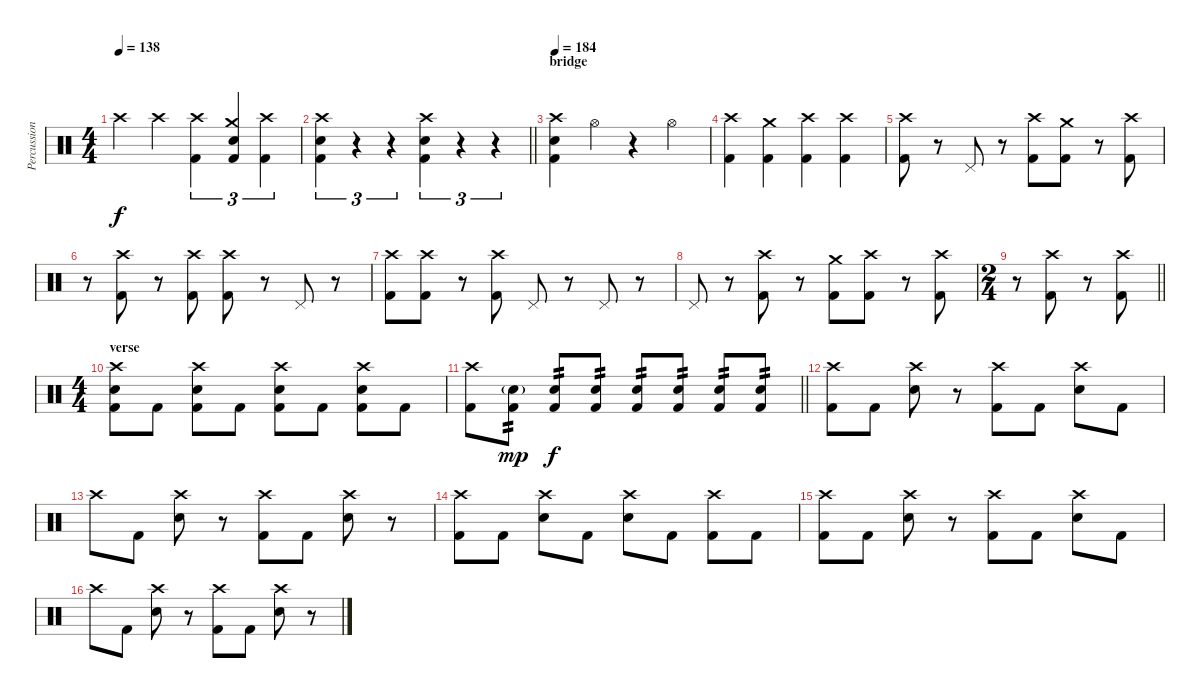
\track ("Percussion" "Percussion") {instrument percussion}
\staff {score}
\articulation defaults
\ts (4 4)
\tempo 138
\clef neutral
\ks c "Crash high (hit)".4{dy f} "Crash high (hit)".4
("Crash high (hit)" "Kick (hit) 2").4{tu (3 2)} ("Crash medium (hit)" "Electric Snare (hit)" "Kick (hit) 2").4{tu (3 2)} ("Crash high (hit)" "Kick (hit) 2").4{tu (3 2)} |
\barLineRight lightlight
("Crash high (hit)" "Electric Snare (hit)" "Kick (hit) 2").4{tu (3 2)} r.4{tu (3 2)} r.4{tu (3 2)} ("Crash high (hit)" "Electric Snare (hit)" "Kick (hit) 2").4{tu (3 2)} r.4{tu (3 2)} r.4{tu (3 2)} |
\section ("" "bridge")
\tempo 184
("Crash high (hit)" "Electric Snare (hit)" "Kick (hit) 2").4 "Hi-Hat (open)".4 r.4 "Hi-Hat (open)".4 |
("Crash high (hit)" "Kick (hit) 2").4 ("Crash medium (hit)" "Kick (hit) 2").4 ("Crash high (hit)" "Kick (hit) 2").4 ("Crash high (hit)" "Kick (hit) 2").4 |
("Crash high (hit)" "Kick (hit) 2").8 r.8 "Pedal Hi-Hat (hit)".8 r.8 ("Crash high (hit)" "Kick (hit) 2").8 ("Crash medium (hit)" "Kick (hit) 2").8 r.8 ("Crash high (hit)" "Kick (hit) 2").8 |
r.8 ("Crash high (hit)" "Kick (hit) 2").8 r.8 ("Crash high (hit)" "Kick (hit) 2").8 ("Crash high (hit)" "Kick (hit) 2").8 r.8 "Pedal Hi-Hat (hit)".8 r.8 |
("Crash high (hit)" "Kick (hit) 2").8 ("Crash high (hit)" "Kick (hit) 2").8 r.8 ("Crash high (hit)" "Kick (hit) 2").8 "Pedal Hi-Hat (hit)".8 r.8 "Pedal Hi-Hat (hit)".8 r.8 |
"Pedal Hi-Hat (hit)".8 r.8 ("Crash high (hit)" "Kick (hit) 2").8 r.8 ("Crash medium (hit)" "Kick (hit) 2").8 ("Crash high (hit)" "Kick (hit) 2").8 r.8 ("Crash high (hit)" "Kick (hit) 2").8 |
\ts (2 4)
\barLineRight lightlight
r.8 ("Crash high (hit)" "Kick (hit) 2").8 r.8 ("Crash high (hit)" "Kick (hit) 2").8 |
\ts (4 4)
\section ("" "verse")
("Crash high (hit)" "Electric Snare (hit)" "Kick (hit) 2").8 "Kick (hit) 2".8 ("Crash high (hit)" "Electric Snare (hit)" "Kick (hit) 2").8 "Kick (hit) 2".8 ("Crash high (hit)" "Electric Snare (hit)" "Kick (hit) 2").8 "Kick (hit) 2".8 ("Crash high (hit)" "Electric Snare (hit)" "Kick (hit) 2").8 "Kick (hit) 2".8 |
\barLineRight lightlight
("Crash high (hit)" "Kick (hit) 2").8 ("Electric Snare (hit)"{g} "Kick (hit) 2").8{tp 2 dy mp} ("Electric Snare (hit)" "Kick (hit) 2").8{tp 2 dy f} ("Electric Snare (hit)" "Kick (hit) 2").8{tp 2} ("Electric Snare (hit)" "Kick (hit) 2").8{tp 2} ("Electric Snare (hit)" "Kick (hit) 2").8{tp 2} ("Electric Snare (hit)" "Kick (hit) 2").8{tp 2} ("Electric Snare (hit)" "Kick (hit) 2").8{tp 2} |
("Crash high (hit)" "Kick (hit) 2").8 "Kick (hit) 2".8 ("Crash high (hit)" "Electric Snare (hit)").8 r.8 ("Crash high (hit)" "Kick (hit) 2").8 "Kick (hit) 2".8 ("Crash high (hit)" "Electric Snare (hit)").8 "Kick (hit) 2".8 |
"Crash high (hit)".8 "Kick (hit) 2".8 ("Crash high (hit)" "Electric Snare (hit)").8 r.8 ("Crash high (hit)" "Kick (hit) 2").8 "Kick (hit) 2".8 ("Crash high (hit)" "Electric Snare (hit)").8 r.8 |
("Crash high (hit)" "Kick (hit) 2").8 "Kick (hit) 2".8 ("Crash high (hit)" "Electric Snare (hit)").8 "Kick (hit) 2".8 ("Crash high (hit)" "Electric Snare (hit)").8 "Kick (hit) 2".8 ("Crash high (hit)" "Kick (hit) 2").8 "Kick (hit) 2".8 |
("Crash high (hit)" "Kick (hit) 2").8 "Kick (hit) 2".8 ("Crash high (hit)" "Electric Snare (hit)").8 r.8 ("Crash high (hit)" "Kick (hit) 2").8 "Kick (hit) 2".8 ("Crash high (hit)" "Electric Snare (hit)").8 "Kick (hit) 2".8 |
"Crash high (hit)".8 "Kick (hit) 2".8 ("Crash high (hit)" "Electric Snare (hit)").8 r.8 ("Crash high (hit)" "Kick (hit) 2").8 "Kick (hit) 2".8 ("Crash high (hit)" "Electric Snare (hit)").8 r.8
